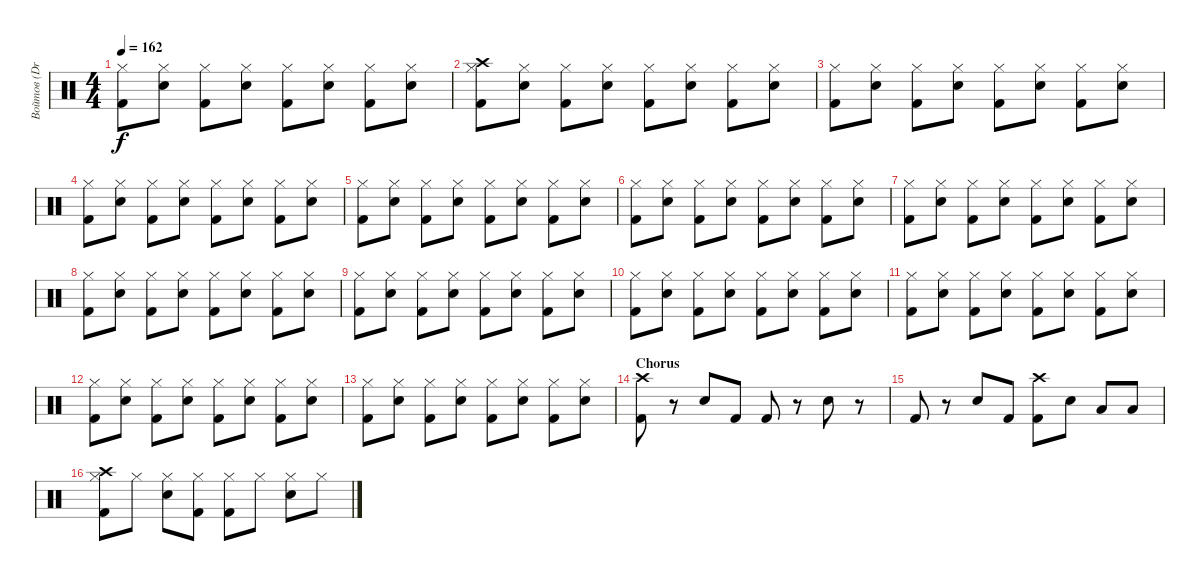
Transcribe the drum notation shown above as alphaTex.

\track ("Войтов (Drums)" "Войтов (Dr") {instrument percussion}
\staff {score}
\articulation defaults
\ts (4 4)
\tempo 162
\clef neutral
\ks c
("Hi-Hat (closed)" "Kick (hit) 2").8{dy f} ("Hi-Hat (closed)" "Electric Snare (hit)").8 ("Hi-Hat (closed)" "Kick (hit) 2").8 ("Hi-Hat (closed)" "Electric Snare (hit)").8 ("Hi-Hat (closed)" "Kick (hit) 2").8 ("Hi-Hat (closed)" "Electric Snare (hit)").8 ("Hi-Hat (closed)" "Kick (hit) 2").8 ("Hi-Hat (closed)" "Electric Snare (hit)").8 |
("Hi-Hat (closed)" "Kick (hit) 2" "Crash high (hit)").8 ("Hi-Hat (closed)" "Electric Snare (hit)").8 ("Hi-Hat (closed)" "Kick (hit) 2").8 ("Hi-Hat (closed)" "Electric Snare (hit)").8 ("Hi-Hat (closed)" "Kick (hit) 2").8 ("Hi-Hat (closed)" "Electric Snare (hit)").8 ("Hi-Hat (closed)" "Kick (hit) 2").8 ("Hi-Hat (closed)" "Electric Snare (hit)").8 |
("Hi-Hat (closed)" "Kick (hit) 2").8 ("Hi-Hat (closed)" "Electric Snare (hit)").8 ("Hi-Hat (closed)" "Kick (hit) 2").8 ("Hi-Hat (closed)" "Electric Snare (hit)").8 ("Hi-Hat (closed)" "Kick (hit) 2").8 ("Hi-Hat (closed)" "Electric Snare (hit)").8 ("Hi-Hat (closed)" "Kick (hit) 2").8 ("Hi-Hat (closed)" "Electric Snare (hit)").8 |
("Hi-Hat (closed)" "Kick (hit) 2").8 ("Hi-Hat (closed)" "Electric Snare (hit)").8 ("Hi-Hat (closed)" "Kick (hit) 2").8 ("Hi-Hat (closed)" "Electric Snare (hit)").8 ("Hi-Hat (closed)" "Kick (hit) 2").8 ("Hi-Hat (closed)" "Electric Snare (hit)").8 ("Hi-Hat (closed)" "Kick (hit) 2").8 ("Hi-Hat (closed)" "Electric Snare (hit)").8 |
("Hi-Hat (closed)" "Kick (hit) 2").8 ("Hi-Hat (closed)" "Electric Snare (hit)").8 ("Hi-Hat (closed)" "Kick (hit) 2").8 ("Hi-Hat (closed)" "Electric Snare (hit)").8 ("Hi-Hat (closed)" "Kick (hit) 2").8 ("Hi-Hat (closed)" "Electric Snare (hit)").8 ("Hi-Hat (closed)" "Kick (hit) 2").8 ("Hi-Hat (closed)" "Electric Snare (hit)").8 |
("Hi-Hat (closed)" "Kick (hit) 2").8 ("Hi-Hat (closed)" "Electric Snare (hit)").8 ("Hi-Hat (closed)" "Kick (hit) 2").8 ("Hi-Hat (closed)" "Electric Snare (hit)").8 ("Hi-Hat (closed)" "Kick (hit) 2").8 ("Hi-Hat (closed)" "Electric Snare (hit)").8 ("Hi-Hat (closed)" "Kick (hit) 2").8 ("Hi-Hat (closed)" "Electric Snare (hit)").8 |
("Hi-Hat (closed)" "Kick (hit) 2").8 ("Hi-Hat (closed)" "Electric Snare (hit)").8 ("Hi-Hat (closed)" "Kick (hit) 2").8 ("Hi-Hat (closed)" "Electric Snare (hit)").8 ("Hi-Hat (closed)" "Kick (hit) 2").8 ("Hi-Hat (closed)" "Electric Snare (hit)").8 ("Hi-Hat (closed)" "Kick (hit) 2").8 ("Hi-Hat (closed)" "Electric Snare (hit)").8 |
("Hi-Hat (closed)" "Kick (hit) 2").8 ("Hi-Hat (closed)" "Electric Snare (hit)").8 ("Hi-Hat (closed)" "Kick (hit) 2").8 ("Hi-Hat (closed)" "Electric Snare (hit)").8 ("Hi-Hat (closed)" "Kick (hit) 2").8 ("Hi-Hat (closed)" "Electric Snare (hit)").8 ("Hi-Hat (closed)" "Kick (hit) 2").8 ("Hi-Hat (closed)" "Electric Snare (hit)").8 |
("Hi-Hat (closed)" "Kick (hit) 2").8 ("Hi-Hat (closed)" "Electric Snare (hit)").8 ("Hi-Hat (closed)" "Kick (hit) 2").8 ("Hi-Hat (closed)" "Electric Snare (hit)").8 ("Hi-Hat (closed)" "Kick (hit) 2").8 ("Hi-Hat (closed)" "Electric Snare (hit)").8 ("Hi-Hat (closed)" "Kick (hit) 2").8 ("Hi-Hat (closed)" "Electric Snare (hit)").8 |
("Hi-Hat (closed)" "Kick (hit) 2").8 ("Hi-Hat (closed)" "Electric Snare (hit)").8 ("Hi-Hat (closed)" "Kick (hit) 2").8 ("Hi-Hat (closed)" "Electric Snare (hit)").8 ("Hi-Hat (closed)" "Kick (hit) 2").8 ("Hi-Hat (closed)" "Electric Snare (hit)").8 ("Hi-Hat (closed)" "Kick (hit) 2").8 ("Hi-Hat (closed)" "Electric Snare (hit)").8 |
("Hi-Hat (closed)" "Kick (hit) 2").8 ("Hi-Hat (closed)" "Electric Snare (hit)").8 ("Hi-Hat (closed)" "Kick (hit) 2").8 ("Hi-Hat (closed)" "Electric Snare (hit)").8 ("Hi-Hat (closed)" "Kick (hit) 2").8 ("Hi-Hat (closed)" "Electric Snare (hit)").8 ("Hi-Hat (closed)" "Kick (hit) 2").8 ("Hi-Hat (closed)" "Electric Snare (hit)").8 |
("Hi-Hat (closed)" "Kick (hit) 2").8 ("Hi-Hat (closed)" "Electric Snare (hit)").8 ("Hi-Hat (closed)" "Kick (hit) 2").8 ("Hi-Hat (closed)" "Electric Snare (hit)").8 ("Hi-Hat (closed)" "Kick (hit) 2").8 ("Hi-Hat (closed)" "Electric Snare (hit)").8 ("Hi-Hat (closed)" "Kick (hit) 2").8 ("Hi-Hat (closed)" "Electric Snare (hit)").8 |
("Hi-Hat (closed)" "Kick (hit) 2").8 ("Hi-Hat (closed)" "Electric Snare (hit)").8 ("Hi-Hat (closed)" "Kick (hit) 2").8 ("Hi-Hat (closed)" "Electric Snare (hit)").8 ("Hi-Hat (closed)" "Kick (hit) 2").8 ("Hi-Hat (closed)" "Electric Snare (hit)").8 ("Hi-Hat (closed)" "Kick (hit) 2").8 ("Hi-Hat (closed)" "Electric Snare (hit)").8 |
\section ("" "Chorus")
("Kick (hit) 2" "Crash high (hit)").8 r.8 "Electric Snare (hit)".8 "Kick (hit) 2".8 "Kick (hit) 2".8 r.8 "Electric Snare (hit)".8 r.8 |
"Kick (hit) 2".8 r.8 "Electric Snare (hit)".8 "Kick (hit) 2".8 ("Kick (hit) 2" "Crash high (hit)").8 "Electric Snare (hit)".8 "Low Tom (hit)".8 "Low Tom (hit)".8 |
("Kick (hit) 2" "Hi-Hat (closed)" "Crash high (hit)").8 "Hi-Hat (closed)".8 ("Electric Snare (hit)" "Hi-Hat (closed)").8 ("Kick (hit) 2" "Hi-Hat (closed)").8 ("Kick (hit) 2" "Hi-Hat (closed)").8 "Hi-Hat (closed)".8 ("Electric Snare (hit)" "Hi-Hat (closed)").8 "Hi-Hat (closed)".8
